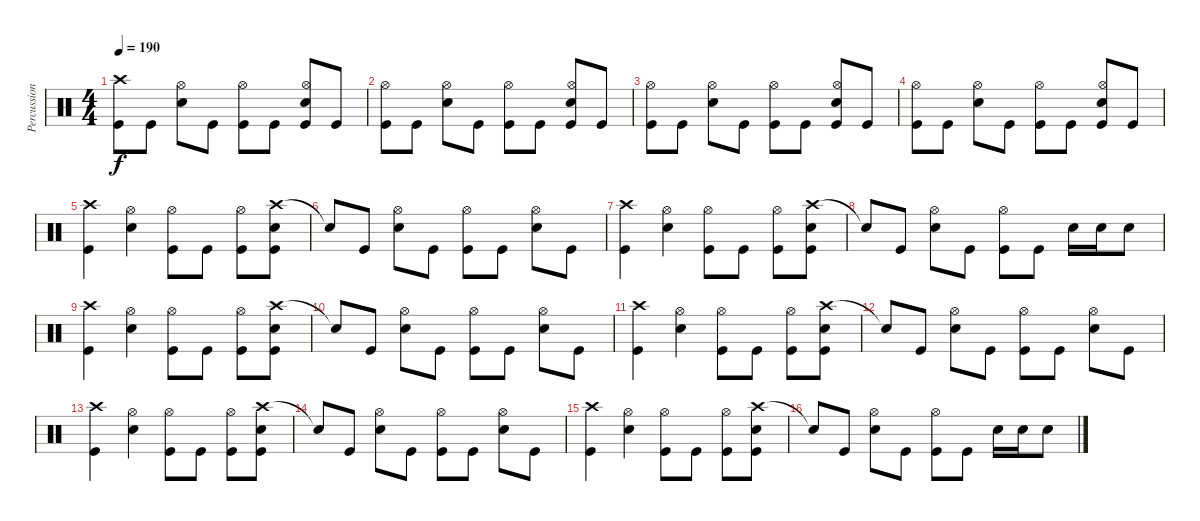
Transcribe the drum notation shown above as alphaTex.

\track ("Percussion" "Percussion") {instrument percussion}
\staff {score}
\articulation defaults
\ts (4 4)
\tempo 190
\clef neutral
\ks c
("Crash high (hit)" "Kick (hit)").8{dy f} "Kick (hit)".8 ("Hi-Hat (open)" "Snare (hit) 2").8 "Kick (hit)".8 ("Hi-Hat (open)" "Kick (hit)").8 "Kick (hit)".8 ("Hi-Hat (open)" "Snare (hit) 2" "Kick (hit)").8 "Kick (hit)".8 |
("Hi-Hat (open)" "Kick (hit)").8 "Kick (hit)".8 ("Hi-Hat (open)" "Snare (hit) 2").8 "Kick (hit)".8 ("Hi-Hat (open)" "Kick (hit)").8 "Kick (hit)".8 ("Hi-Hat (open)" "Snare (hit) 2" "Kick (hit)").8 "Kick (hit)".8 |
("Hi-Hat (open)" "Kick (hit)").8 "Kick (hit)".8 ("Hi-Hat (open)" "Snare (hit) 2").8 "Kick (hit)".8 ("Hi-Hat (open)" "Kick (hit)").8 "Kick (hit)".8 ("Hi-Hat (open)" "Snare (hit) 2" "Kick (hit)").8 "Kick (hit)".8 |
("Hi-Hat (open)" "Kick (hit)").8 "Kick (hit)".8 ("Hi-Hat (open)" "Snare (hit) 2").8 "Kick (hit)".8 ("Hi-Hat (open)" "Kick (hit)").8 "Kick (hit)".8 ("Hi-Hat (open)" "Snare (hit) 2" "Kick (hit)").8 "Kick (hit)".8 |
("Crash high (hit)" "Kick (hit)").4 ("Hi-Hat (open)" "Snare (hit) 2").4 ("Hi-Hat (open)" "Kick (hit)").8 "Kick (hit)".8 ("Hi-Hat (open)" "Kick (hit)").8 ("Crash high (hit)" "Snare (hit) 2" "Kick (hit)").8 |
"Snare (hit)"{t}.8 "Kick (hit)".8 ("Hi-Hat (open)" "Snare (hit) 2").8 "Kick (hit)".8 ("Hi-Hat (open)" "Kick (hit)").8 "Kick (hit)".8 ("Hi-Hat (open)" "Snare (hit) 2").8 "Kick (hit)".8 |
("Crash high (hit)" "Kick (hit)").4 ("Hi-Hat (open)" "Snare (hit) 2").4 ("Hi-Hat (open)" "Kick (hit)").8 "Kick (hit)".8 ("Hi-Hat (open)" "Kick (hit)").8 ("Crash high (hit)" "Snare (hit) 2" "Kick (hit)").8 |
"Snare (hit)"{t}.8 "Kick (hit)".8 ("Hi-Hat (open)" "Snare (hit) 2").8 "Kick (hit)".8 ("Hi-Hat (open)" "Kick (hit)").8 "Kick (hit)".8 "Snare (hit) 2".16 "Snare (hit) 2".16 "Snare (hit) 2".8 |
("Crash high (hit)" "Kick (hit)").4 ("Hi-Hat (open)" "Snare (hit) 2").4 ("Hi-Hat (open)" "Kick (hit)").8 "Kick (hit)".8 ("Hi-Hat (open)" "Kick (hit)").8 ("Crash high (hit)" "Snare (hit) 2" "Kick (hit)").8 |
"Snare (hit)"{t}.8 "Kick (hit)".8 ("Hi-Hat (open)" "Snare (hit) 2").8 "Kick (hit)".8 ("Hi-Hat (open)" "Kick (hit)").8 "Kick (hit)".8 ("Hi-Hat (open)" "Snare (hit) 2").8 "Kick (hit)".8 |
("Crash high (hit)" "Kick (hit)").4 ("Hi-Hat (open)" "Snare (hit) 2").4 ("Hi-Hat (open)" "Kick (hit)").8 "Kick (hit)".8 ("Hi-Hat (open)" "Kick (hit)").8 ("Crash high (hit)" "Snare (hit) 2" "Kick (hit)").8 |
"Snare (hit)"{t}.8 "Kick (hit)".8 ("Hi-Hat (open)" "Snare (hit) 2").8 "Kick (hit)".8 ("Hi-Hat (open)" "Kick (hit)").8 "Kick (hit)".8 ("Hi-Hat (open)" "Snare (hit) 2").8 "Kick (hit)".8 |
("Crash high (hit)" "Kick (hit)").4 ("Hi-Hat (open)" "Snare (hit) 2").4 ("Hi-Hat (open)" "Kick (hit)").8 "Kick (hit)".8 ("Hi-Hat (open)" "Kick (hit)").8 ("Crash high (hit)" "Snare (hit) 2" "Kick (hit)").8 |
"Snare (hit)"{t}.8 "Kick (hit)".8 ("Hi-Hat (open)" "Snare (hit) 2").8 "Kick (hit)".8 ("Hi-Hat (open)" "Kick (hit)").8 "Kick (hit)".8 ("Hi-Hat (open)" "Snare (hit) 2").8 "Kick (hit)".8 |
("Crash high (hit)" "Kick (hit)").4 ("Hi-Hat (open)" "Snare (hit) 2").4 ("Hi-Hat (open)" "Kick (hit)").8 "Kick (hit)".8 ("Hi-Hat (open)" "Kick (hit)").8 ("Crash high (hit)" "Snare (hit) 2" "Kick (hit)").8 |
"Snare (hit)"{t}.8 "Kick (hit)".8 ("Hi-Hat (open)" "Snare (hit) 2").8 "Kick (hit)".8 ("Hi-Hat (open)" "Kick (hit)").8 "Kick (hit)".8 "Snare (hit) 2".16 "Snare (hit) 2".16 "Snare (hit) 2".8
